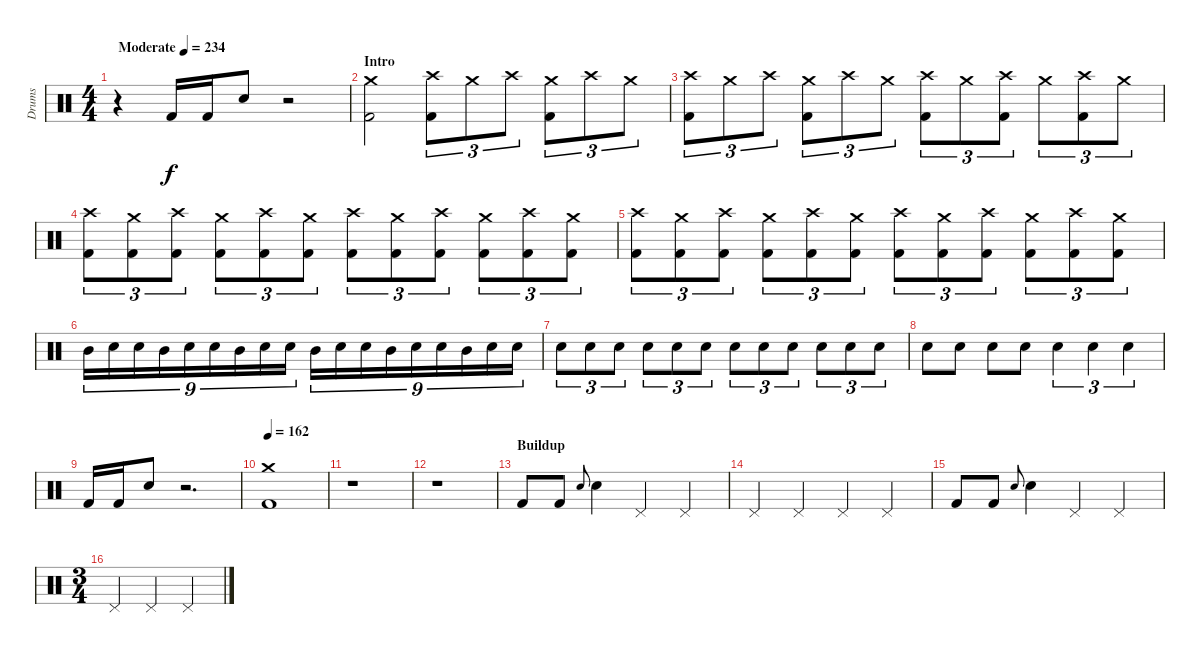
\track ("Drums" "Drums") {instrument percussion}
\staff {score}
\articulation defaults
\ts (4 4)
\tempo (234 "Moderate")
\clef neutral
\ks c
r.4{dy f} "Kick (hit) 2".16 "Kick (hit) 2".16 "Snare (hit) 2".8 r.2 |
\section ("" "Intro")
("Crash medium (hit)" "Kick (hit) 2").2 ("Crash high (hit)" "Kick (hit) 2").8{tu (3 2)} "Crash medium (hit)".8{tu (3 2)} "Crash high (hit)".8{tu (3 2)} ("Crash medium (hit)" "Kick (hit) 2").8{tu (3 2)} "Crash high (hit)".8{tu (3 2)} "Crash medium (hit)".8{tu (3 2)} |
("Crash high (hit)" "Kick (hit) 2").8{tu (3 2)} "Crash medium (hit)".8{tu (3 2)} "Crash high (hit)".8{tu (3 2)} ("Crash medium (hit)" "Kick (hit) 2").8{tu (3 2)} "Crash high (hit)".8{tu (3 2)} "Crash medium (hit)".8{tu (3 2)} ("Crash high (hit)" "Kick (hit) 2").8{tu (3 2)} "Crash medium (hit)".8{tu (3 2)} ("Crash high (hit)" "Kick (hit) 2").8{tu (3 2)} "Crash medium (hit)".8{tu (3 2)} ("Crash high (hit)" "Kick (hit) 2").8{tu (3 2)} "Crash medium (hit)".8{tu (3 2)} |
("Crash high (hit)" "Kick (hit) 2").8{tu (3 2)} ("Crash medium (hit)" "Kick (hit) 2").8{tu (3 2)} ("Crash high (hit)" "Kick (hit) 2").8{tu (3 2)} ("Crash medium (hit)" "Kick (hit) 2").8{tu (3 2)} ("Crash high (hit)" "Kick (hit) 2").8{tu (3 2)} ("Crash medium (hit)" "Kick (hit) 2").8{tu (3 2)} ("Crash high (hit)" "Kick (hit) 2").8{tu (3 2)} ("Crash medium (hit)" "Kick (hit) 2").8{tu (3 2)} ("Crash high (hit)" "Kick (hit) 2").8{tu (3 2)} ("Crash medium (hit)" "Kick (hit) 2").8{tu (3 2)} ("Crash high (hit)" "Kick (hit) 2").8{tu (3 2)} ("Crash medium (hit)" "Kick (hit) 2").8{tu (3 2)} |
("Crash high (hit)" "Kick (hit) 2").8{tu (3 2)} ("Crash medium (hit)" "Kick (hit) 2").8{tu (3 2)} ("Crash high (hit)" "Kick (hit) 2").8{tu (3 2)} ("Crash medium (hit)" "Kick (hit) 2").8{tu (3 2)} ("Crash high (hit)" "Kick (hit) 2").8{tu (3 2)} ("Crash medium (hit)" "Kick (hit) 2").8{tu (3 2)} ("Crash high (hit)" "Kick (hit) 2").8{tu (3 2)} ("Crash medium (hit)" "Kick (hit) 2").8{tu (3 2)} ("Crash high (hit)" "Kick (hit) 2").8{tu (3 2)} ("Crash medium (hit)" "Kick (hit) 2").8{tu (3 2)} ("Crash high (hit)" "Kick (hit) 2").8{tu (3 2)} ("Crash medium (hit)" "Kick (hit) 2").8{tu (3 2)} |
"Mid Tom (hit)".16{tu (9 8)} "Snare (hit) 2".16{tu (9 8)} "Snare (hit) 2".16{tu (9 8)} "Mid Tom (hit)".16{tu (9 8)} "Snare (hit) 2".16{tu (9 8)} "Snare (hit) 2".16{tu (9 8)} "Mid Tom (hit)".16{tu (9 8)} "Snare (hit) 2".16{tu (9 8)} "Snare (hit) 2".16{tu (9 8)} "Mid Tom (hit)".16{tu (9 8)} "Snare (hit) 2".16{tu (9 8)} "Snare (hit) 2".16{tu (9 8)} "Mid Tom (hit)".16{tu (9 8)} "Snare (hit) 2".16{tu (9 8)} "Snare (hit) 2".16{tu (9 8)} "Mid Tom (hit)".16{tu (9 8)} "Snare (hit) 2".16{tu (9 8)} "Snare (hit) 2".16{tu (9 8)} |
"Snare (hit) 2".8{tu (3 2)} "Snare (hit) 2".8{tu (3 2)} "Snare (hit) 2".8{tu (3 2)} "Snare (hit) 2".8{tu (3 2)} "Snare (hit) 2".8{tu (3 2)} "Snare (hit) 2".8{tu (3 2)} "Snare (hit) 2".8{tu (3 2)} "Snare (hit) 2".8{tu (3 2)} "Snare (hit) 2".8{tu (3 2)} "Snare (hit) 2".8{tu (3 2)} "Snare (hit) 2".8{tu (3 2)} "Snare (hit) 2".8{tu (3 2)} |
"Snare (hit) 2".8 "Snare (hit) 2".8 "Snare (hit) 2".8 "Snare (hit) 2".8 "Snare (hit) 2".4{tu (3 2)} "Snare (hit) 2".4{tu (3 2)} "Snare (hit) 2".4{tu (3 2)} |
"Kick (hit) 2".16 "Kick (hit) 2".16 "Snare (hit) 2".8 r.2{d} |
\tempo 162
("Crash medium (hit)" "Kick (hit) 2").1 |
r.1 |
r.1 |
\section ("" "Buildup")
"Kick (hit) 2".8 "Kick (hit) 2".8 "Snare (hit) 2".8{gr onbeat} "Snare (hit) 2".4 "Pedal Hi-Hat (hit)".4 "Pedal Hi-Hat (hit)".4 |
"Pedal Hi-Hat (hit)".4 "Pedal Hi-Hat (hit)".4 "Pedal Hi-Hat (hit)".4 "Pedal Hi-Hat (hit)".4 |
"Kick (hit) 2".8 "Kick (hit) 2".8 "Snare (hit) 2".8{gr onbeat} "Snare (hit) 2".4 "Pedal Hi-Hat (hit)".4 "Pedal Hi-Hat (hit)".4 |
\ts (3 4)
"Pedal Hi-Hat (hit)".4 "Pedal Hi-Hat (hit)".4 "Pedal Hi-Hat (hit)".4
